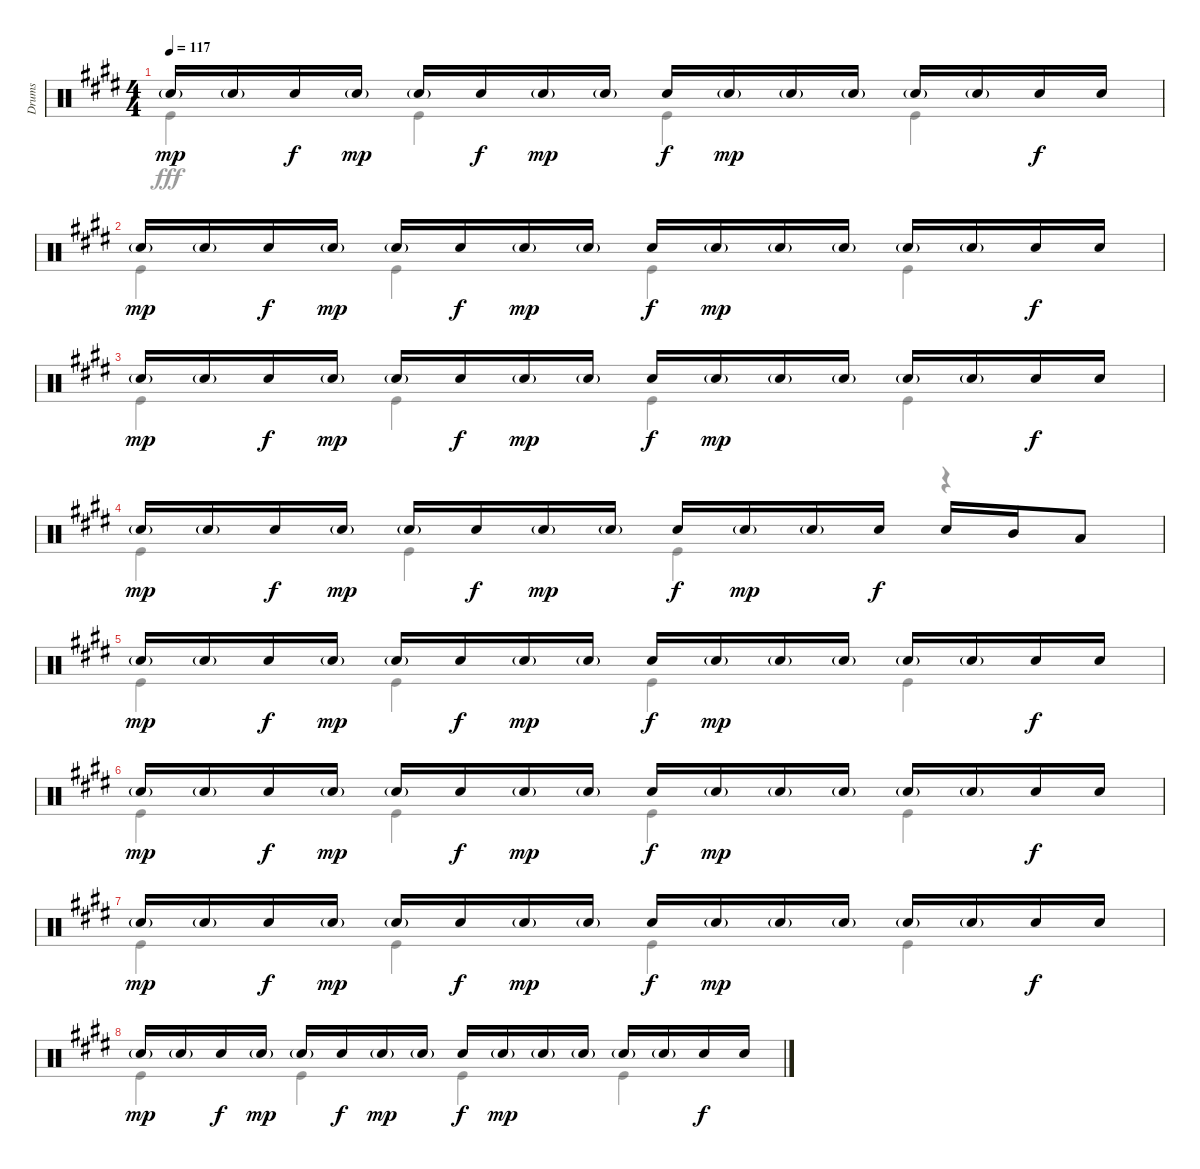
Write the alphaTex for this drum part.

\track ("Drums" "Drums") {instrument percussion}
\staff {score}
\articulation defaults
\voice
\ts (4 4)
\tempo 117
\clef neutral
\ks e "Snare (hit) 2"{g}.16{dy mp} "Snare (hit) 2"{g}.16 "Snare (hit) 2".16{dy f} "Snare (hit) 2"{g}.16{dy mp} "Snare (hit) 2"{g}.16 "Snare (hit) 2".16{dy f} "Snare (hit) 2"{g}.16{dy mp} "Snare (hit) 2"{g}.16 "Snare (hit) 2".16{dy f} "Snare (hit) 2"{g}.16{dy mp} "Snare (hit) 2"{g}.16 "Snare (hit) 2"{g}.16 "Snare (hit) 2"{g}.16 "Snare (hit) 2"{g}.16 "Snare (hit) 2".16{dy f} "Snare (hit) 2".16
|
"Snare (hit) 2"{g}.16{dy mp} "Snare (hit) 2"{g}.16 "Snare (hit) 2".16{dy f} "Snare (hit) 2"{g}.16{dy mp} "Snare (hit) 2"{g}.16 "Snare (hit) 2".16{dy f} "Snare (hit) 2"{g}.16{dy mp} "Snare (hit) 2"{g}.16 "Snare (hit) 2".16{dy f} "Snare (hit) 2"{g}.16{dy mp} "Snare (hit) 2"{g}.16 "Snare (hit) 2"{g}.16 "Snare (hit) 2"{g}.16 "Snare (hit) 2"{g}.16 "Snare (hit) 2".16{dy f} "Snare (hit) 2".16 |
"Snare (hit) 2"{g}.16{dy mp} "Snare (hit) 2"{g}.16 "Snare (hit) 2".16{dy f} "Snare (hit) 2"{g}.16{dy mp} "Snare (hit) 2"{g}.16 "Snare (hit) 2".16{dy f} "Snare (hit) 2"{g}.16{dy mp} "Snare (hit) 2"{g}.16 "Snare (hit) 2".16{dy f} "Snare (hit) 2"{g}.16{dy mp} "Snare (hit) 2"{g}.16 "Snare (hit) 2"{g}.16 "Snare (hit) 2"{g}.16 "Snare (hit) 2"{g}.16 "Snare (hit) 2".16{dy f} "Snare (hit) 2".16 |
"Snare (hit) 2"{g}.16{dy mp} "Snare (hit) 2"{g}.16 "Snare (hit) 2".16{dy f} "Snare (hit) 2"{g}.16{dy mp} "Snare (hit) 2"{g}.16 "Snare (hit) 2".16{dy f} "Snare (hit) 2"{g}.16{dy mp} "Snare (hit) 2"{g}.16 "Snare (hit) 2".16{dy f} "Snare (hit) 2"{g}.16{dy mp} "Snare (hit) 2"{g}.16 "Snare (hit) 2".16{dy f} "Snare (hit) 2".16 "Mid Tom (hit)".16 "Low Tom (hit)".8 |
"Snare (hit) 2"{g}.16{dy mp} "Snare (hit) 2"{g}.16 "Snare (hit) 2".16{dy f} "Snare (hit) 2"{g}.16{dy mp} "Snare (hit) 2"{g}.16 "Snare (hit) 2".16{dy f} "Snare (hit) 2"{g}.16{dy mp} "Snare (hit) 2"{g}.16 "Snare (hit) 2".16{dy f} "Snare (hit) 2"{g}.16{dy mp} "Snare (hit) 2"{g}.16 "Snare (hit) 2"{g}.16 "Snare (hit) 2"{g}.16 "Snare (hit) 2"{g}.16 "Snare (hit) 2".16{dy f} "Snare (hit) 2".16 |
"Snare (hit) 2"{g}.16{dy mp} "Snare (hit) 2"{g}.16 "Snare (hit) 2".16{dy f} "Snare (hit) 2"{g}.16{dy mp} "Snare (hit) 2"{g}.16 "Snare (hit) 2".16{dy f} "Snare (hit) 2"{g}.16{dy mp} "Snare (hit) 2"{g}.16 "Snare (hit) 2".16{dy f} "Snare (hit) 2"{g}.16{dy mp} "Snare (hit) 2"{g}.16 "Snare (hit) 2"{g}.16 "Snare (hit) 2"{g}.16 "Snare (hit) 2"{g}.16 "Snare (hit) 2".16{dy f} "Snare (hit) 2".16 |
"Snare (hit) 2"{g}.16{dy mp} "Snare (hit) 2"{g}.16 "Snare (hit) 2".16{dy f} "Snare (hit) 2"{g}.16{dy mp} "Snare (hit) 2"{g}.16 "Snare (hit) 2".16{dy f} "Snare (hit) 2"{g}.16{dy mp} "Snare (hit) 2"{g}.16 "Snare (hit) 2".16{dy f} "Snare (hit) 2"{g}.16{dy mp} "Snare (hit) 2"{g}.16 "Snare (hit) 2"{g}.16 "Snare (hit) 2"{g}.16 "Snare (hit) 2"{g}.16 "Snare (hit) 2".16{dy f} "Snare (hit) 2".16 |
"Snare (hit) 2"{g}.16{dy mp} "Snare (hit) 2"{g}.16 "Snare (hit) 2".16{dy f} "Snare (hit) 2"{g}.16{dy mp} "Snare (hit) 2"{g}.16 "Snare (hit) 2".16{dy f} "Snare (hit) 2"{g}.16{dy mp} "Snare (hit) 2"{g}.16 "Snare (hit) 2".16{dy f} "Snare (hit) 2"{g}.16{dy mp} "Snare (hit) 2"{g}.16 "Snare (hit) 2"{g}.16 "Snare (hit) 2"{g}.16 "Snare (hit) 2"{g}.16 "Snare (hit) 2".16{dy f} "Snare (hit) 2".16
\voice
\clef neutral
\ottava regular
\simile none
\ks e "Kick (hit)".4{dy fff} "Kick (hit)".4 "Kick (hit)".4 "Kick (hit)".4
|
"Kick (hit)".4 "Kick (hit)".4 "Kick (hit)".4 "Kick (hit)".4 |
"Kick (hit)".4 "Kick (hit)".4 "Kick (hit)".4 "Kick (hit)".4 |
"Kick (hit)".4 "Kick (hit)".4 "Kick (hit)".4 r.4 |
"Kick (hit)".4 "Kick (hit)".4 "Kick (hit)".4 "Kick (hit)".4 |
"Kick (hit)".4 "Kick (hit)".4 "Kick (hit)".4 "Kick (hit)".4 |
"Kick (hit)".4 "Kick (hit)".4 "Kick (hit)".4 "Kick (hit)".4 |
"Kick (hit)".4 "Kick (hit)".4 "Kick (hit)".4 "Kick (hit)".4
